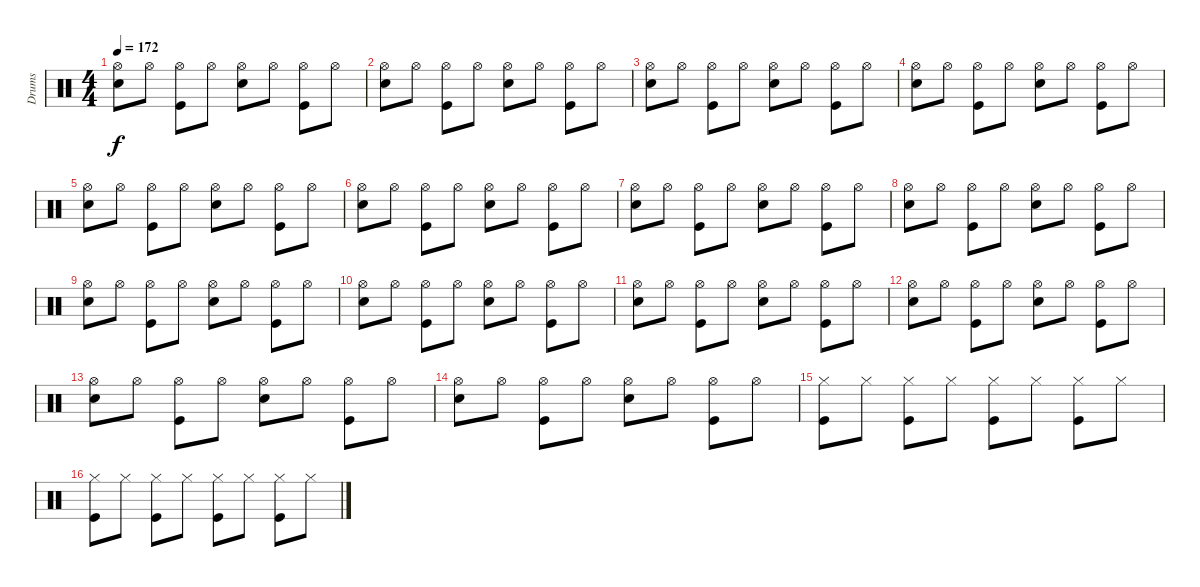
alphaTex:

\track ("Drums" "Drums") {instrument percussion}
\staff {score}
\articulation defaults
\ts (4 4)
\tempo 172
\clef neutral
\ks c
("Snare (hit) 2" "Hi-Hat (open)").8{dy f} "Hi-Hat (open)".8 ("Kick (hit)" "Hi-Hat (open)").8 "Hi-Hat (open)".8 ("Snare (hit) 2" "Hi-Hat (open)").8 "Hi-Hat (open)".8 ("Kick (hit)" "Hi-Hat (open)").8 "Hi-Hat (open)".8 |
("Snare (hit) 2" "Hi-Hat (open)").8 "Hi-Hat (open)".8 ("Kick (hit)" "Hi-Hat (open)").8 "Hi-Hat (open)".8 ("Snare (hit) 2" "Hi-Hat (open)").8 "Hi-Hat (open)".8 ("Kick (hit)" "Hi-Hat (open)").8 "Hi-Hat (open)".8 |
("Snare (hit) 2" "Hi-Hat (open)").8 "Hi-Hat (open)".8 ("Kick (hit)" "Hi-Hat (open)").8 "Hi-Hat (open)".8 ("Snare (hit) 2" "Hi-Hat (open)").8 "Hi-Hat (open)".8 ("Kick (hit)" "Hi-Hat (open)").8 "Hi-Hat (open)".8 |
("Snare (hit) 2" "Hi-Hat (open)").8 "Hi-Hat (open)".8 ("Kick (hit)" "Hi-Hat (open)").8 "Hi-Hat (open)".8 ("Snare (hit) 2" "Hi-Hat (open)").8 "Hi-Hat (open)".8 ("Kick (hit)" "Hi-Hat (open)").8 "Hi-Hat (open)".8 |
("Snare (hit) 2" "Hi-Hat (open)").8 "Hi-Hat (open)".8 ("Kick (hit)" "Hi-Hat (open)").8 "Hi-Hat (open)".8 ("Snare (hit) 2" "Hi-Hat (open)").8 "Hi-Hat (open)".8 ("Kick (hit)" "Hi-Hat (open)").8 "Hi-Hat (open)".8 |
("Snare (hit) 2" "Hi-Hat (open)").8 "Hi-Hat (open)".8 ("Kick (hit)" "Hi-Hat (open)").8 "Hi-Hat (open)".8 ("Snare (hit) 2" "Hi-Hat (open)").8 "Hi-Hat (open)".8 ("Kick (hit)" "Hi-Hat (open)").8 "Hi-Hat (open)".8 |
("Snare (hit) 2" "Hi-Hat (open)").8 "Hi-Hat (open)".8 ("Kick (hit)" "Hi-Hat (open)").8 "Hi-Hat (open)".8 ("Snare (hit) 2" "Hi-Hat (open)").8 "Hi-Hat (open)".8 ("Kick (hit)" "Hi-Hat (open)").8 "Hi-Hat (open)".8 |
("Snare (hit) 2" "Hi-Hat (open)").8 "Hi-Hat (open)".8 ("Kick (hit)" "Hi-Hat (open)").8 "Hi-Hat (open)".8 ("Snare (hit) 2" "Hi-Hat (open)").8 "Hi-Hat (open)".8 ("Kick (hit)" "Hi-Hat (open)").8 "Hi-Hat (open)".8 |
("Snare (hit) 2" "Hi-Hat (open)").8 "Hi-Hat (open)".8 ("Kick (hit)" "Hi-Hat (open)").8 "Hi-Hat (open)".8 ("Snare (hit) 2" "Hi-Hat (open)").8 "Hi-Hat (open)".8 ("Kick (hit)" "Hi-Hat (open)").8 "Hi-Hat (open)".8 |
("Snare (hit) 2" "Hi-Hat (open)").8 "Hi-Hat (open)".8 ("Kick (hit)" "Hi-Hat (open)").8 "Hi-Hat (open)".8 ("Snare (hit) 2" "Hi-Hat (open)").8 "Hi-Hat (open)".8 ("Kick (hit)" "Hi-Hat (open)").8 "Hi-Hat (open)".8 |
("Snare (hit) 2" "Hi-Hat (open)").8 "Hi-Hat (open)".8 ("Kick (hit)" "Hi-Hat (open)").8 "Hi-Hat (open)".8 ("Snare (hit) 2" "Hi-Hat (open)").8 "Hi-Hat (open)".8 ("Kick (hit)" "Hi-Hat (open)").8 "Hi-Hat (open)".8 |
("Snare (hit) 2" "Hi-Hat (open)").8 "Hi-Hat (open)".8 ("Kick (hit)" "Hi-Hat (open)").8 "Hi-Hat (open)".8 ("Snare (hit) 2" "Hi-Hat (open)").8 "Hi-Hat (open)".8 ("Kick (hit)" "Hi-Hat (open)").8 "Hi-Hat (open)".8 |
("Snare (hit) 2" "Hi-Hat (open)").8 "Hi-Hat (open)".8 ("Kick (hit)" "Hi-Hat (open)").8 "Hi-Hat (open)".8 ("Snare (hit) 2" "Hi-Hat (open)").8 "Hi-Hat (open)".8 ("Kick (hit)" "Hi-Hat (open)").8 "Hi-Hat (open)".8 |
("Snare (hit) 2" "Hi-Hat (open)").8 "Hi-Hat (open)".8 ("Kick (hit)" "Hi-Hat (open)").8 "Hi-Hat (open)".8 ("Snare (hit) 2" "Hi-Hat (open)").8 "Hi-Hat (open)".8 ("Kick (hit)" "Hi-Hat (open)").8 "Hi-Hat (open)".8 |
("Kick (hit)" "Hi-Hat (closed)").8 "Hi-Hat (closed)".8 ("Kick (hit)" "Hi-Hat (closed)").8 "Hi-Hat (closed)".8 ("Kick (hit)" "Hi-Hat (closed)").8 "Hi-Hat (closed)".8 ("Kick (hit)" "Hi-Hat (closed)").8 "Hi-Hat (closed)".8 |
("Kick (hit)" "Hi-Hat (closed)").8 "Hi-Hat (closed)".8 ("Kick (hit)" "Hi-Hat (closed)").8 "Hi-Hat (closed)".8 ("Kick (hit)" "Hi-Hat (closed)").8 "Hi-Hat (closed)".8 ("Kick (hit)" "Hi-Hat (closed)").8 "Hi-Hat (closed)".8
